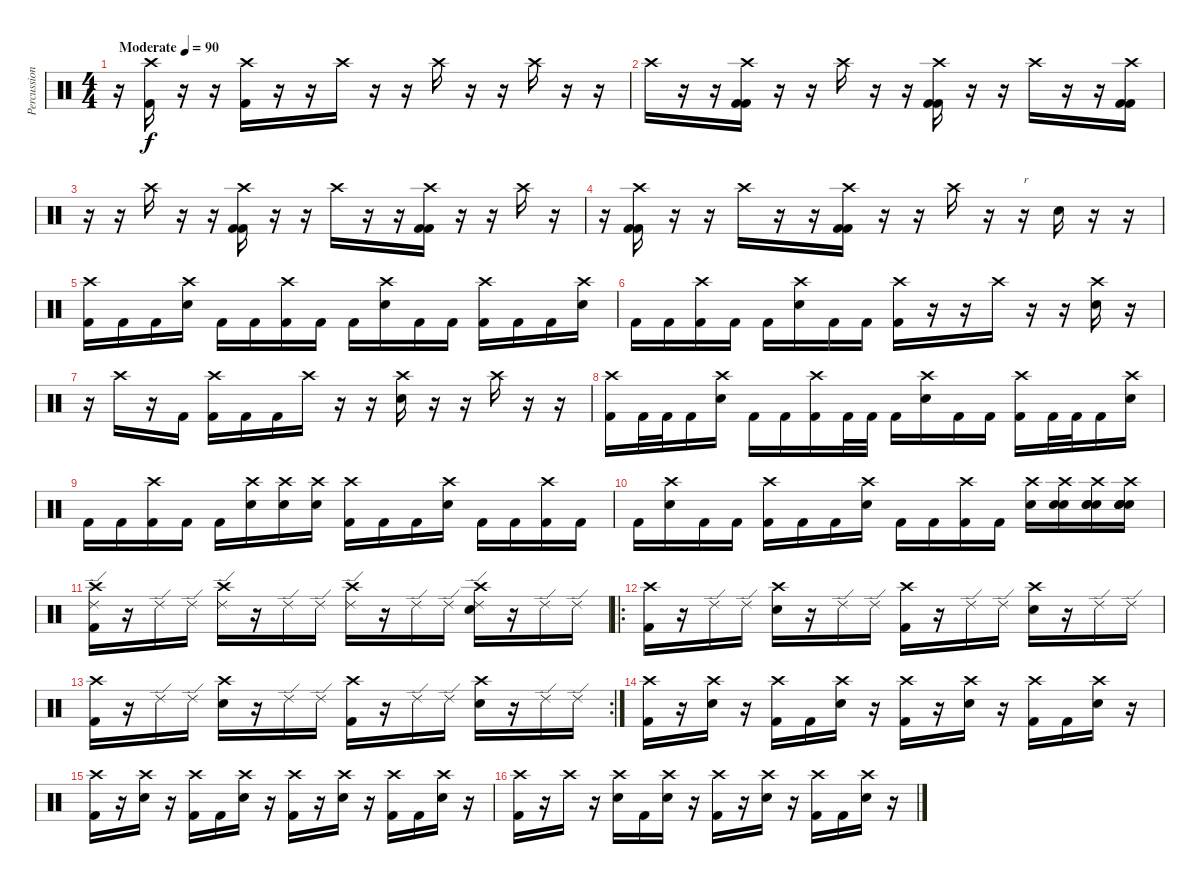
\track ("Percussion" "Percussion") {instrument percussion}
\staff {score}
\articulation defaults
\ts (4 4)
\tempo (90 "Moderate")
\clef neutral
\ks c
r.16{dy f} ("Crash high (hit)" "Kick (hit) 2").16 r.16 r.16 ("Crash high (hit)" "Kick (hit) 2").16 r.16 r.16 "Crash high (hit)".16 r.16 r.16 "Crash high (hit)".16 r.16 r.16 "Crash high (hit)".16 r.16 r.16 |
"Crash high (hit)".16 r.16 r.16 ("Crash high (hit)" "Kick (hit) 2" "Kick (hit) 2").16 r.16 r.16 "Crash high (hit)".16 r.16 r.16 ("Crash high (hit)" "Kick (hit) 2" "Kick (hit) 2").16 r.16 r.16 "Crash high (hit)".16 r.16 r.16 ("Crash high (hit)" "Kick (hit) 2" "Kick (hit) 2").16 |
r.16 r.16 "Crash high (hit)".16 r.16 r.16 ("Crash high (hit)" "Kick (hit) 2" "Kick (hit) 2").16 r.16 r.16 "Crash high (hit)".16 r.16 r.16 ("Crash high (hit)" "Kick (hit) 2" "Kick (hit) 2").16 r.16 r.16 "Crash high (hit)".16 r.16 |
r.16 ("Crash high (hit)" "Kick (hit) 2" "Kick (hit) 2").16 r.16 r.16 "Crash high (hit)".16 r.16 r.16 ("Crash high (hit)" "Kick (hit) 2" "Kick (hit) 2").16 r.16 r.16 "Crash high (hit)".16 r.16 r.16{txt "r"} "Snare (hit) 2".16 r.16 r.16 |
("Crash high (hit)" "Kick (hit) 2").16 "Kick (hit) 2".16 "Kick (hit) 2".16 ("Crash high (hit)" "Snare (hit) 2").16 "Kick (hit) 2".16 "Kick (hit) 2".16 ("Crash high (hit)" "Kick (hit) 2").16 "Kick (hit) 2".16 "Kick (hit) 2".16 ("Crash high (hit)" "Snare (hit) 2").16 "Kick (hit) 2".16 "Kick (hit) 2".16 ("Crash high (hit)" "Kick (hit) 2").16 "Kick (hit) 2".16 "Kick (hit) 2".16 ("Crash high (hit)" "Snare (hit) 2").16 |
"Kick (hit) 2".16 "Kick (hit) 2".16 ("Crash high (hit)" "Kick (hit) 2").16 "Kick (hit) 2".16 "Kick (hit) 2".16 ("Crash high (hit)" "Snare (hit) 2").16 "Kick (hit) 2".16 "Kick (hit) 2".16 ("Crash high (hit)" "Kick (hit) 2").16 r.16 r.16 "Crash high (hit)".16 r.16 r.16 ("Crash high (hit)" "Snare (hit) 2").16 r.16 |
r.16 "Crash high (hit)".16 r.16 "Kick (hit) 2".16 ("Crash high (hit)" "Kick (hit) 2").16 "Kick (hit) 2".16 "Kick (hit) 2".16 "Crash high (hit)".16 r.16 r.16 ("Crash high (hit)" "Snare (hit) 2").16 r.16 r.16 "Crash high (hit)".16 r.16 r.16 |
("Crash high (hit)" "Kick (hit) 2").16 "Kick (hit) 2".32 "Kick (hit) 2".32 "Kick (hit) 2".16 ("Crash high (hit)" "Snare (hit) 2").16 "Kick (hit) 2".16 "Kick (hit) 2".16 ("Crash high (hit)" "Kick (hit) 2").16 "Kick (hit) 2".32 "Kick (hit) 2".32 "Kick (hit) 2".16 ("Crash high (hit)" "Snare (hit) 2").16 "Kick (hit) 2".16 "Kick (hit) 2".16 ("Crash high (hit)" "Kick (hit) 2").16 "Kick (hit) 2".32 "Kick (hit) 2".32 "Kick (hit) 2".16 ("Crash high (hit)" "Snare (hit) 2").16 |
"Kick (hit) 2".16 "Kick (hit) 2".16 ("Crash high (hit)" "Kick (hit) 2").16 "Kick (hit) 2".16 "Kick (hit) 2".16 ("Crash high (hit)" "Snare (hit) 2").16 ("Crash high (hit)" "Snare (hit) 2").16 ("Crash high (hit)" "Snare (hit) 2").16 ("Crash high (hit)" "Kick (hit) 2").16 "Kick (hit) 2".16 "Kick (hit) 2".16 ("Crash high (hit)" "Snare (hit) 2").16 "Kick (hit) 2".16 "Kick (hit) 2".16 ("Crash high (hit)" "Kick (hit) 2").16 "Kick (hit) 2".16 |
"Kick (hit) 2".16 ("Crash high (hit)" "Snare (hit) 2").16 "Kick (hit) 2".16 "Kick (hit) 2".16 ("Crash high (hit)" "Kick (hit) 2").16 "Kick (hit) 2".16 "Kick (hit) 2".16 ("Crash high (hit)" "Snare (hit) 2").16 "Kick (hit) 2".16 "Kick (hit) 2".16 ("Crash high (hit)" "Kick (hit) 2").16 "Kick (hit) 2".16 ("Crash high (hit)" "Snare (hit) 2").16 ("Crash high (hit)" "Snare (hit) 2" "Snare (hit) 2").16 ("Crash high (hit)" "Snare (hit) 2" "Snare (hit) 2" "Snare (hit) 2").16 ("Crash high (hit)" "Snare (hit) 2" "Snare (hit) 2" "Snare (hit) 2" "Snare (hit) 2").16 |
("Crash high (hit)" "Ride (edge) 2" "Kick (hit) 2").16 r.16 "Ride (edge) 2".16 "Ride (edge) 2".16 ("Crash high (hit)" "Ride (edge) 2").16 r.16 "Ride (edge) 2".16 "Ride (edge) 2".16 ("Crash high (hit)" "Ride (edge) 2").16 r.16 "Ride (edge) 2".16 "Ride (edge) 2".16 ("Crash high (hit)" "Ride (edge) 2" "Snare (hit) 2").16 r.16 "Ride (edge) 2".16 "Ride (edge) 2".16 |
\ro
("Crash high (hit)" "Kick (hit) 2").16 r.16 "Ride (edge) 2".16 "Ride (edge) 2".16 ("Crash high (hit)" "Snare (hit) 2").16 r.16 "Ride (edge) 2".16 "Ride (edge) 2".16 ("Crash high (hit)" "Kick (hit) 2").16 r.16 "Ride (edge) 2".16 "Ride (edge) 2".16 ("Crash high (hit)" "Snare (hit) 2").16 r.16 "Ride (edge) 2".16 "Ride (edge) 2".16 |
\rc 2
("Crash high (hit)" "Kick (hit) 2").16 r.16 "Ride (edge) 2".16 "Ride (edge) 2".16 ("Crash high (hit)" "Snare (hit) 2").16 r.16 "Ride (edge) 2".16 "Ride (edge) 2".16 ("Crash high (hit)" "Kick (hit) 2").16 r.16 "Ride (edge) 2".16 "Ride (edge) 2".16 ("Crash high (hit)" "Snare (hit) 2").16 r.16 "Ride (edge) 2".16 "Ride (edge) 2".16 |
("Crash high (hit)" "Kick (hit) 2").16 r.16 ("Crash high (hit)" "Snare (hit) 2").16 r.16 ("Crash high (hit)" "Kick (hit) 2").16 "Kick (hit) 2".16 ("Crash high (hit)" "Snare (hit) 2").16 r.16 ("Crash high (hit)" "Kick (hit) 2").16 r.16 ("Crash high (hit)" "Snare (hit) 2").16 r.16 ("Crash high (hit)" "Kick (hit) 2").16 "Kick (hit) 2".16 ("Crash high (hit)" "Snare (hit) 2").16 r.16 |
("Crash high (hit)" "Kick (hit) 2").16 r.16 ("Crash high (hit)" "Snare (hit) 2").16 r.16 ("Crash high (hit)" "Kick (hit) 2").16 "Kick (hit) 2".16 ("Crash high (hit)" "Snare (hit) 2").16 r.16 ("Crash high (hit)" "Kick (hit) 2").16 r.16 ("Crash high (hit)" "Snare (hit) 2").16 r.16 ("Crash high (hit)" "Kick (hit) 2").16 "Kick (hit) 2".16 ("Crash high (hit)" "Snare (hit) 2").16 r.16 |
("Crash high (hit)" "Kick (hit) 2").16 r.16 "Crash high (hit)".16 r.16 ("Crash high (hit)" "Snare (hit) 2").16 "Kick (hit) 2".16 ("Crash high (hit)" "Snare (hit) 2").16 r.16 ("Crash high (hit)" "Kick (hit) 2").16 r.16 ("Crash high (hit)" "Snare (hit) 2").16 r.16 ("Crash high (hit)" "Kick (hit) 2").16 "Kick (hit) 2".16 ("Crash high (hit)" "Snare (hit) 2").16 r.16
